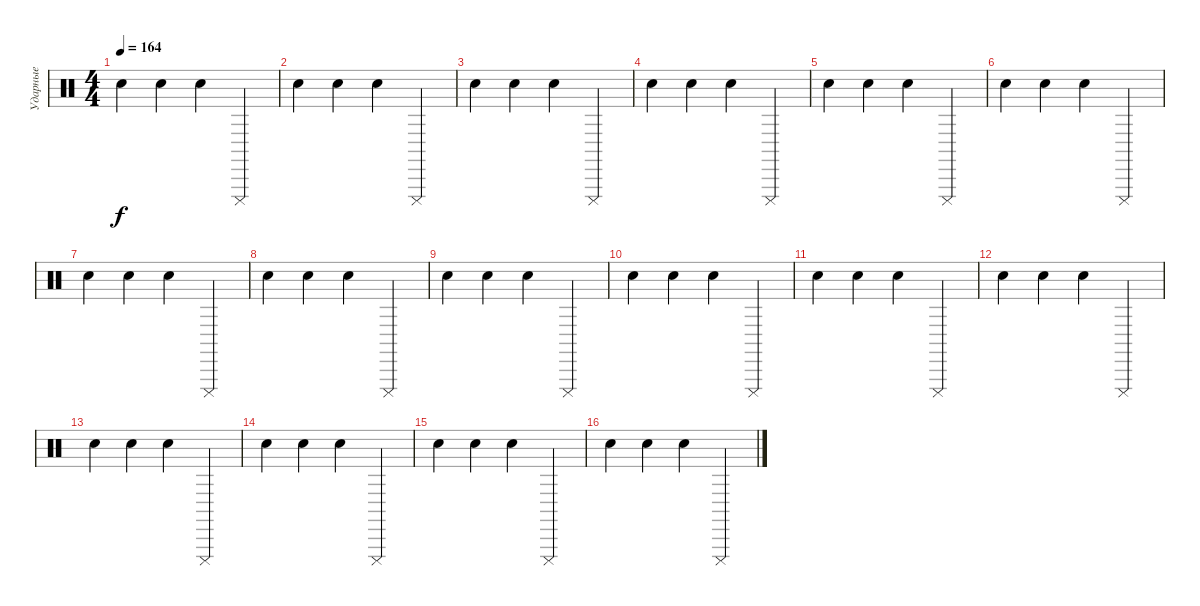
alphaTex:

\track ("Ударные" "Ударные") {instrument percussion}
\staff {score}
\articulation defaults
\ts (4 4)
\tempo 164
\clef neutral
\ks c "Hand Clap (hit)".4{dy f} "Electric Snare (hit)".4 "Snare (hit) 2".4 "Cuica (mute)".4
|
"Hand Clap (hit)".4 "Electric Snare (hit)".4 "Snare (hit) 2".4 "Cuica (mute)".4 |
"Hand Clap (hit)".4 "Electric Snare (hit)".4 "Snare (hit) 2".4 "Cuica (mute)".4 |
"Hand Clap (hit)".4 "Electric Snare (hit)".4 "Snare (hit) 2".4 "Cuica (mute)".4 |
"Hand Clap (hit)".4 "Electric Snare (hit)".4 "Snare (hit) 2".4 "Cuica (mute)".4 |
"Hand Clap (hit)".4 "Electric Snare (hit)".4 "Snare (hit) 2".4 "Cuica (mute)".4 |
"Hand Clap (hit)".4 "Electric Snare (hit)".4 "Snare (hit) 2".4 "Cuica (mute)".4 |
"Hand Clap (hit)".4 "Electric Snare (hit)".4 "Snare (hit) 2".4 "Cuica (mute)".4 |
"Hand Clap (hit)".4 "Electric Snare (hit)".4 "Snare (hit) 2".4 "Cuica (mute)".4 |
"Hand Clap (hit)".4 "Electric Snare (hit)".4 "Snare (hit) 2".4 "Cuica (mute)".4 |
"Hand Clap (hit)".4 "Electric Snare (hit)".4 "Snare (hit) 2".4 "Cuica (mute)".4 |
"Hand Clap (hit)".4 "Electric Snare (hit)".4 "Snare (hit) 2".4 "Cuica (mute)".4 |
"Hand Clap (hit)".4 "Electric Snare (hit)".4 "Snare (hit) 2".4 "Cuica (mute)".4 |
"Hand Clap (hit)".4 "Electric Snare (hit)".4 "Snare (hit) 2".4 "Cuica (mute)".4 |
"Hand Clap (hit)".4 "Electric Snare (hit)".4 "Snare (hit) 2".4 "Cuica (mute)".4 |
"Hand Clap (hit)".4 "Electric Snare (hit)".4 "Snare (hit) 2".4 "Cuica (mute)".4
